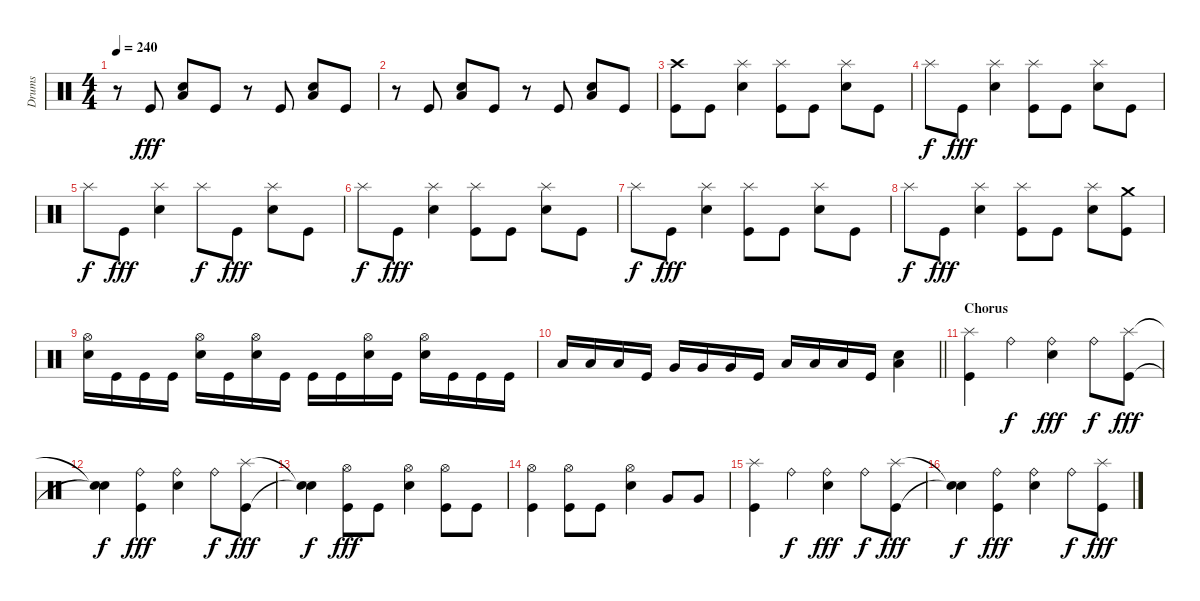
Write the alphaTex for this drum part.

\track ("Drums" "Drums") {instrument percussion}
\staff {score}
\articulation defaults
\ts (4 4)
\tempo 240
\clef neutral
\ks c
r.8{dy fff} "Kick (hit)".8 ("Electric Snare (hit)" "Low Floor Tom (hit)").8 "Kick (hit)".8 r.8 "Kick (hit)".8 ("Electric Snare (hit)" "Low Floor Tom (hit)").8 "Kick (hit)".8 |
r.8 "Kick (hit)".8 ("Electric Snare (hit)" "Low Floor Tom (hit)").8 "Kick (hit)".8 r.8 "Kick (hit)".8 ("Electric Snare (hit)" "Low Floor Tom (hit)").8 "Kick (hit)".8 |
("Kick (hit)" "Crash high (hit)").8 "Kick (hit)".8 ("Electric Snare (hit)" "Splash (hit)").4 ("Kick (hit)" "Splash (hit)").8 "Kick (hit)".8 ("Electric Snare (hit)" "Splash (hit)").8 "Kick (hit)".8 |
"Splash (hit)".8{dy f} "Kick (hit)".8{dy fff} ("Electric Snare (hit)" "Splash (hit)").4 ("Kick (hit)" "Splash (hit)").8 "Kick (hit)".8 ("Electric Snare (hit)" "Splash (hit)").8 "Kick (hit)".8 |
"Splash (hit)".8{dy f} "Kick (hit)".8{dy fff} ("Electric Snare (hit)" "Splash (hit)").4 "Splash (hit)".8{dy f} "Kick (hit)".8{dy fff} ("Electric Snare (hit)" "Splash (hit)").8 "Kick (hit)".8 |
"Splash (hit)".8{dy f} "Kick (hit)".8{dy fff} ("Electric Snare (hit)" "Splash (hit)").4 ("Kick (hit)" "Splash (hit)").8 "Kick (hit)".8 ("Electric Snare (hit)" "Splash (hit)").8 "Kick (hit)".8 |
"Splash (hit)".8{dy f} "Kick (hit)".8{dy fff} ("Electric Snare (hit)" "Splash (hit)").4 ("Kick (hit)" "Splash (hit)").8 "Kick (hit)".8 ("Electric Snare (hit)" "Splash (hit)").8 "Kick (hit)".8 |
"Splash (hit)".8{dy f} "Kick (hit)".8{dy fff} ("Electric Snare (hit)" "Splash (hit)").4 ("Kick (hit)" "Splash (hit)").8 "Kick (hit)".8 ("Electric Snare (hit)" "Splash (hit)").8 ("Kick (hit)" "Crash medium (hit)").8 |
("Electric Snare (hit)" "Hi-Hat (open)").16 "Kick (hit)".16 "Kick (hit)".16 "Kick (hit)".16 ("Electric Snare (hit)" "Hi-Hat (open)").16 "Kick (hit)".16 ("Electric Snare (hit)" "Hi-Hat (open)").16 "Kick (hit)".16 "Kick (hit)".16 "Kick (hit)".16 ("Electric Snare (hit)" "Hi-Hat (open)").16 "Kick (hit)".16 ("Electric Snare (hit)" "Hi-Hat (open)").16 "Kick (hit)".16 "Kick (hit)".16 "Kick (hit)".16 |
\barLineRight lightlight "Low Tom (hit)".16 "Low Tom (hit)".16 "Low Tom (hit)".16 "Kick (hit)".16 "Very Low Tom (hit)".16 "Very Low Tom (hit)".16 "Very Low Tom (hit)".16 "Kick (hit)".16 "Low Floor Tom (hit)".16 "Low Floor Tom (hit)".16 "Low Floor Tom (hit)".16 "Kick (hit)".16
("Electric Snare (hit)" "Low Floor Tom (hit)").4 |
\section ("" "Chorus")
("Kick (hit)" "Splash (hit)").4 "Ride (bell)".4{dy f} ("Electric Snare (hit)" "Ride (bell)").4{dy fff} "Ride (bell)".8{dy f} ("Kick (hit)" "Splash (hit)").8{dy fff} |
("Snare (hit)"{t} "Snare (hit)"{t}).4{dy f} ("Kick (hit)" "Ride (bell)").4{dy fff} ("Electric Snare (hit)" "Ride (bell)").4 "Ride (bell)".8{dy f} ("Kick (hit)" "Splash (hit)").8{dy fff} |
("Snare (hit)"{t} "Snare (hit)"{t}).4{dy f} ("Kick (hit)" "Hi-Hat (open)").8{dy fff} "Kick (hit)".8 ("Electric Snare (hit)" "Hi-Hat (open)").4 ("Kick (hit)" "Hi-Hat (open)").8 "Kick (hit)".8 |
("Kick (hit)" "Hi-Hat (open)").4 ("Kick (hit)" "Hi-Hat (open)").8 "Kick (hit)".8 ("Electric Snare (hit)" "Hi-Hat (open)").4 "Very Low Tom (hit)".8 "Very Low Tom (hit)".8 |
("Kick (hit)" "Splash (hit)").4 "Ride (bell)".4{dy f} ("Electric Snare (hit)" "Ride (bell)").4{dy fff} "Ride (bell)".8{dy f} ("Kick (hit)" "Splash (hit)").8{dy fff} |
("Snare (hit)"{t} "Snare (hit)"{t}).4{dy f} ("Kick (hit)" "Ride (bell)").4{dy fff} ("Electric Snare (hit)" "Ride (bell)").4 "Ride (bell)".8{dy f} ("Kick (hit)" "Splash (hit)").8{dy fff}
